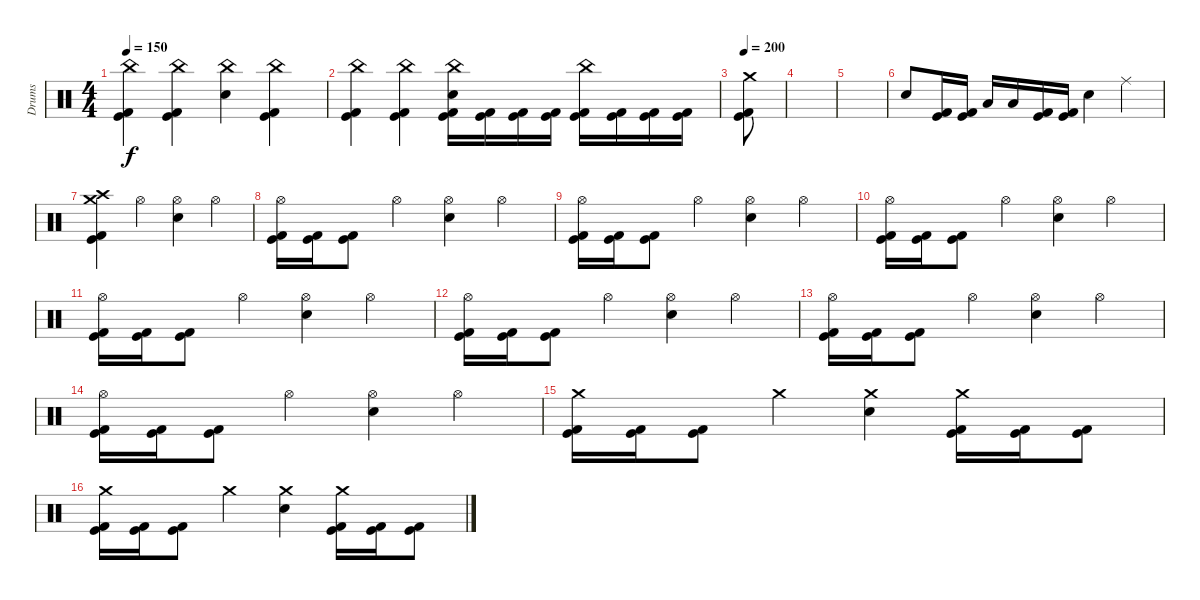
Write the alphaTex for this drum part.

\track ("Drums" "Drums") {instrument percussion}
\staff {score}
\articulation defaults
\ts (4 4)
\tempo 150
\clef neutral
\ks c
("China (hit)" "Kick (hit)" "Kick (hit) 2").4{dy f} ("China (hit)" "Kick (hit)" "Kick (hit) 2").4 ("China (hit)" "Electric Snare (hit)").4 ("China (hit)" "Kick (hit)" "Kick (hit) 2").4 |
("China (hit)" "Kick (hit)" "Kick (hit) 2").4 ("China (hit)" "Kick (hit)" "Kick (hit) 2").4 ("China (hit)" "Electric Snare (hit)" "Kick (hit)" "Kick (hit) 2").16 ("Kick (hit)" "Kick (hit) 2").16 ("Kick (hit)" "Kick (hit) 2").16 ("Kick (hit)" "Kick (hit) 2").16 ("China (hit)" "Kick (hit)" "Kick (hit) 2").16 ("Kick (hit)" "Kick (hit) 2").16 ("Kick (hit)" "Kick (hit) 2").16 ("Kick (hit)" "Kick (hit) 2").16 |
\tempo 200
("Crash medium (hit)" "Kick (hit)" "Kick (hit) 2").8 |
|
|
"Electric Snare (hit)".8 ("Kick (hit)" "Kick (hit) 2").16 ("Kick (hit)" "Kick (hit) 2").16 "Low Tom (hit)".16 "Low Tom (hit)".16 ("Kick (hit)" "Kick (hit) 2").16 ("Kick (hit)" "Kick (hit) 2").16 "Electric Snare (hit)".4 "Ride (middle)".4 |
("Crash high (hit)" "Crash medium (hit)" "Kick (hit)" "Kick (hit) 2").4 "Hi-Hat (open)".4 ("Hi-Hat (open)" "Electric Snare (hit)").4 "Hi-Hat (open)".4 |
("Hi-Hat (open)" "Kick (hit)" "Kick (hit) 2").16 ("Kick (hit)" "Kick (hit) 2").16 ("Kick (hit)" "Kick (hit) 2").8 "Hi-Hat (open)".4 ("Hi-Hat (open)" "Electric Snare (hit)").4 "Hi-Hat (open)".4 |
("Hi-Hat (open)" "Kick (hit)" "Kick (hit) 2").16 ("Kick (hit)" "Kick (hit) 2").16 ("Kick (hit)" "Kick (hit) 2").8 "Hi-Hat (open)".4 ("Hi-Hat (open)" "Electric Snare (hit)").4 "Hi-Hat (open)".4 |
("Hi-Hat (open)" "Kick (hit)" "Kick (hit) 2").16 ("Kick (hit)" "Kick (hit) 2").16 ("Kick (hit)" "Kick (hit) 2").8 "Hi-Hat (open)".4 ("Hi-Hat (open)" "Electric Snare (hit)").4 "Hi-Hat (open)".4 |
("Hi-Hat (open)" "Kick (hit)" "Kick (hit) 2").16 ("Kick (hit)" "Kick (hit) 2").16 ("Kick (hit)" "Kick (hit) 2").8 "Hi-Hat (open)".4 ("Hi-Hat (open)" "Electric Snare (hit)").4 "Hi-Hat (open)".4 |
("Hi-Hat (open)" "Kick (hit)" "Kick (hit) 2").16 ("Kick (hit)" "Kick (hit) 2").16 ("Kick (hit)" "Kick (hit) 2").8 "Hi-Hat (open)".4 ("Hi-Hat (open)" "Electric Snare (hit)").4 "Hi-Hat (open)".4 |
("Hi-Hat (open)" "Kick (hit)" "Kick (hit) 2").16 ("Kick (hit)" "Kick (hit) 2").16 ("Kick (hit)" "Kick (hit) 2").8 "Hi-Hat (open)".4 ("Hi-Hat (open)" "Electric Snare (hit)").4 "Hi-Hat (open)".4 |
("Hi-Hat (open)" "Kick (hit)" "Kick (hit) 2").16 ("Kick (hit)" "Kick (hit) 2").16 ("Kick (hit)" "Kick (hit) 2").8 "Hi-Hat (open)".4 ("Hi-Hat (open)" "Electric Snare (hit)").4 "Hi-Hat (open)".4 |
("Crash medium (hit)" "Kick (hit)" "Kick (hit) 2").16 ("Kick (hit)" "Kick (hit) 2").16 ("Kick (hit)" "Kick (hit) 2").8 "Crash medium (hit)".4 ("Crash medium (hit)" "Electric Snare (hit)").4 ("Crash medium (hit)" "Kick (hit)" "Kick (hit) 2").16 ("Kick (hit)" "Kick (hit) 2").16 ("Kick (hit)" "Kick (hit) 2").8 |
("Crash medium (hit)" "Kick (hit)" "Kick (hit) 2").16 ("Kick (hit)" "Kick (hit) 2").16 ("Kick (hit)" "Kick (hit) 2").8 "Crash medium (hit)".4 ("Crash medium (hit)" "Electric Snare (hit)").4 ("Crash medium (hit)" "Kick (hit)" "Kick (hit) 2").16 ("Kick (hit)" "Kick (hit) 2").16 ("Kick (hit)" "Kick (hit) 2").8
